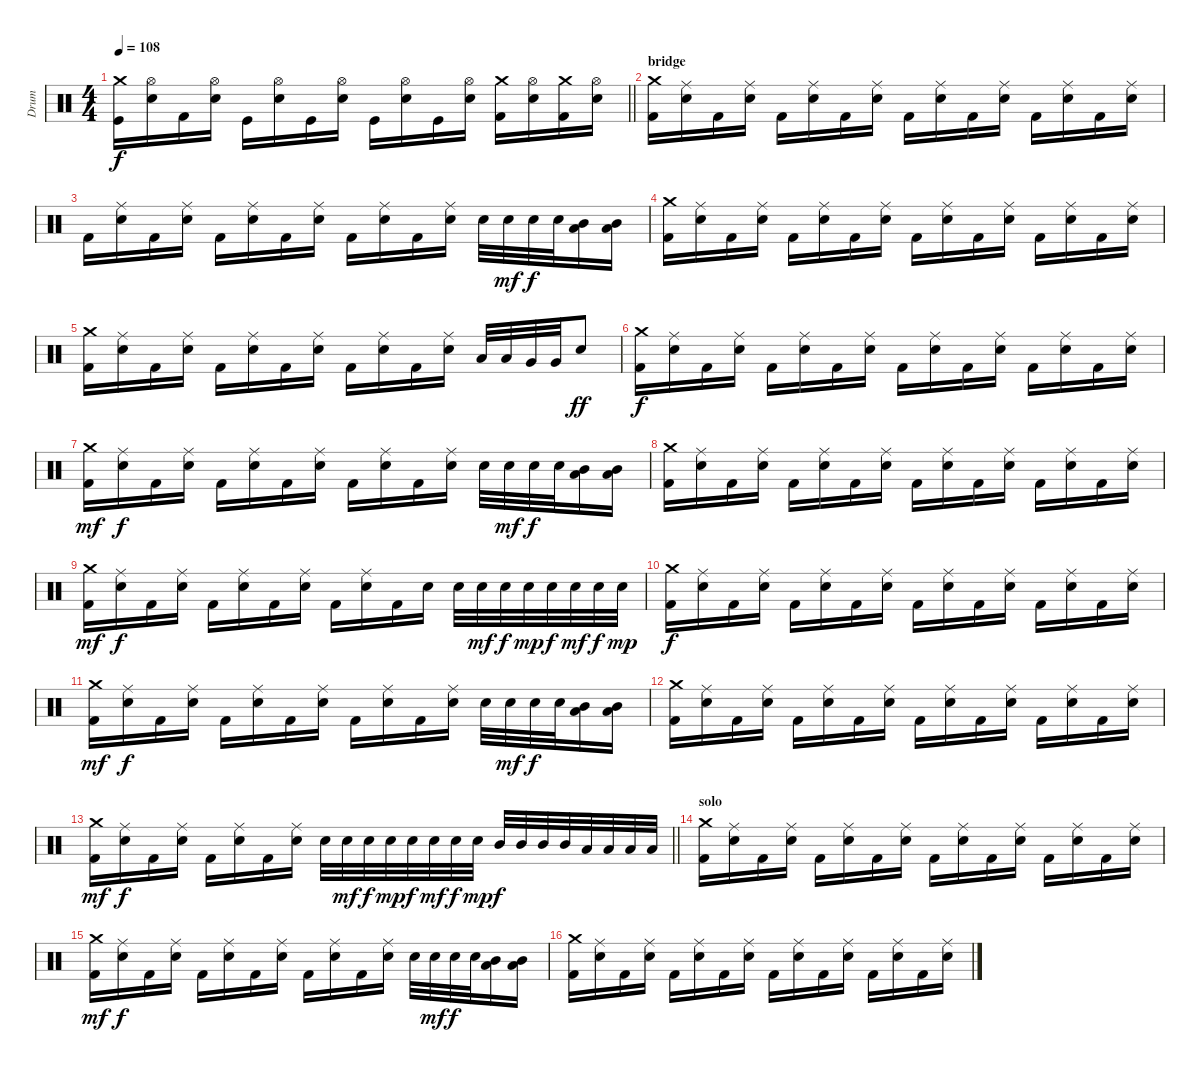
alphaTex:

\track ("Drum" "Drum") {instrument percussion}
\staff {score}
\articulation defaults
\ts (4 4)
\tempo 108
\clef neutral
\barLineRight lightlight
\ks c
("Crash medium (hit)" "Kick (hit)").16{dy f} ("Hi-Hat (open)" "Snare (hit) 2").16 "Kick (hit) 2".16 ("Hi-Hat (open)" "Snare (hit) 2").16 "Kick (hit)".16 ("Hi-Hat (open)" "Snare (hit) 2").16 "Kick (hit)".16 ("Hi-Hat (open)" "Snare (hit) 2").16 "Kick (hit)".16 ("Hi-Hat (open)" "Snare (hit) 2").16 "Kick (hit)".16 ("Hi-Hat (open)" "Snare (hit) 2").16 ("Crash medium (hit)" "Kick (hit) 2").16 ("Hi-Hat (open)" "Snare (hit) 2").16 ("Crash medium (hit)" "Kick (hit) 2").16 ("Hi-Hat (open)" "Snare (hit) 2").16 |
\section ("" "bridge")
("Crash medium (hit)" "Kick (hit) 2").16 ("Ride (middle)" "Snare (hit) 2").16 "Kick (hit) 2".16 ("Ride (middle)" "Snare (hit) 2").16 "Kick (hit) 2".16 ("Ride (middle)" "Snare (hit) 2").16 "Kick (hit) 2".16 ("Ride (middle)" "Snare (hit) 2").16 "Kick (hit) 2".16 ("Ride (middle)" "Snare (hit) 2").16 "Kick (hit) 2".16 ("Ride (middle)" "Snare (hit) 2").16 "Kick (hit) 2".16 ("Ride (middle)" "Snare (hit) 2").16 "Kick (hit) 2".16 ("Ride (middle)" "Snare (hit) 2").16 |
"Kick (hit) 2".16 ("Ride (middle)" "Snare (hit) 2").16 "Kick (hit) 2".16 ("Ride (middle)" "Snare (hit) 2").16 "Kick (hit) 2".16 ("Ride (middle)" "Snare (hit) 2").16 "Kick (hit) 2".16 ("Ride (middle)" "Snare (hit) 2").16 "Kick (hit) 2".16 ("Ride (middle)" "Snare (hit) 2").16 "Kick (hit) 2".16 ("Ride (middle)" "Snare (hit) 2").16 "Snare (hit) 2".32 "Snare (hit) 2".32{dy mf} "Snare (hit) 2".32{dy f} "Snare (hit) 2".32 ("Low Tom (hit)" "Mid Tom (hit)").16 ("Low Tom (hit)" "Mid Tom (hit)").16 |
("Crash medium (hit)" "Kick (hit) 2").16 ("Ride (middle)" "Snare (hit) 2").16 "Kick (hit) 2".16 ("Ride (middle)" "Snare (hit) 2").16 "Kick (hit) 2".16 ("Ride (middle)" "Snare (hit) 2").16 "Kick (hit) 2".16 ("Ride (middle)" "Snare (hit) 2").16 "Kick (hit) 2".16 ("Ride (middle)" "Snare (hit) 2").16 "Kick (hit) 2".16 ("Ride (middle)" "Snare (hit) 2").16 "Kick (hit) 2".16 ("Ride (middle)" "Snare (hit) 2").16 "Kick (hit) 2".16 ("Ride (middle)" "Snare (hit) 2").16 |
("Crash medium (hit)" "Kick (hit) 2").16 ("Ride (middle)" "Snare (hit) 2").16 "Kick (hit) 2".16 ("Ride (middle)" "Snare (hit) 2").16 "Kick (hit) 2".16 ("Ride (middle)" "Snare (hit) 2").16 "Kick (hit) 2".16 ("Ride (middle)" "Snare (hit) 2").16 "Kick (hit) 2".16 ("Ride (middle)" "Snare (hit) 2").16 "Kick (hit) 2".16 ("Ride (middle)" "Snare (hit) 2").16 "Low Tom (hit)".32 "Low Tom (hit)".32 "Very Low Tom (hit)".32 "Very Low Tom (hit)".32 "Snare (hit) 2".8{dy ff} |
("Crash medium (hit)" "Kick (hit) 2").16{dy f} ("Ride (middle)" "Snare (hit) 2").16 "Kick (hit) 2".16 ("Ride (middle)" "Snare (hit) 2").16 "Kick (hit) 2".16 ("Ride (middle)" "Snare (hit) 2").16 "Kick (hit) 2".16 ("Ride (middle)" "Snare (hit) 2").16 "Kick (hit) 2".16 ("Ride (middle)" "Snare (hit) 2").16 "Kick (hit) 2".16 ("Ride (middle)" "Snare (hit) 2").16 "Kick (hit) 2".16 ("Ride (middle)" "Snare (hit) 2").16 "Kick (hit) 2".16 ("Ride (middle)" "Snare (hit) 2").16 |
("Crash medium (hit)" "Kick (hit) 2").16{dy mf} ("Ride (middle)" "Snare (hit) 2").16{dy f} "Kick (hit) 2".16 ("Ride (middle)" "Snare (hit) 2").16 "Kick (hit) 2".16 ("Ride (middle)" "Snare (hit) 2").16 "Kick (hit) 2".16 ("Ride (middle)" "Snare (hit) 2").16 "Kick (hit) 2".16 ("Ride (middle)" "Snare (hit) 2").16 "Kick (hit) 2".16 ("Ride (middle)" "Snare (hit) 2").16 "Snare (hit) 2".32 "Snare (hit) 2".32{dy mf} "Snare (hit) 2".32{dy f} "Snare (hit) 2".32 ("Low Tom (hit)" "Mid Tom (hit)").16 ("Low Tom (hit)" "Mid Tom (hit)").16 |
("Crash medium (hit)" "Kick (hit) 2").16 ("Ride (middle)" "Snare (hit) 2").16 "Kick (hit) 2".16 ("Ride (middle)" "Snare (hit) 2").16 "Kick (hit) 2".16 ("Ride (middle)" "Snare (hit) 2").16 "Kick (hit) 2".16 ("Ride (middle)" "Snare (hit) 2").16 "Kick (hit) 2".16 ("Ride (middle)" "Snare (hit) 2").16 "Kick (hit) 2".16 ("Ride (middle)" "Snare (hit) 2").16 "Kick (hit) 2".16 ("Ride (middle)" "Snare (hit) 2").16 "Kick (hit) 2".16 ("Ride (middle)" "Snare (hit) 2").16 |
("Crash medium (hit)" "Kick (hit) 2").16{dy mf} ("Ride (middle)" "Snare (hit) 2").16{dy f} "Kick (hit) 2".16 ("Ride (middle)" "Snare (hit) 2").16 "Kick (hit) 2".16 ("Ride (middle)" "Snare (hit) 2").16 "Kick (hit) 2".16 ("Ride (middle)" "Snare (hit) 2").16 "Kick (hit) 2".16 ("Ride (middle)" "Snare (hit) 2").16 "Kick (hit) 2".16 "Snare (hit) 2".16 "Snare (hit) 2".32 "Snare (hit) 2".32{dy mf} "Snare (hit) 2".32{dy f} "Snare (hit) 2".32{dy mp} "Snare (hit) 2".32{dy f} "Snare (hit) 2".32{dy mf} "Snare (hit) 2".32{dy f} "Snare (hit) 2".32{dy mp} |
("Crash medium (hit)" "Kick (hit) 2").16{dy f} ("Ride (middle)" "Snare (hit) 2").16 "Kick (hit) 2".16 ("Ride (middle)" "Snare (hit) 2").16 "Kick (hit) 2".16 ("Ride (middle)" "Snare (hit) 2").16 "Kick (hit) 2".16 ("Ride (middle)" "Snare (hit) 2").16 "Kick (hit) 2".16 ("Ride (middle)" "Snare (hit) 2").16 "Kick (hit) 2".16 ("Ride (middle)" "Snare (hit) 2").16 "Kick (hit) 2".16 ("Ride (middle)" "Snare (hit) 2").16 "Kick (hit) 2".16 ("Ride (middle)" "Snare (hit) 2").16 |
("Crash medium (hit)" "Kick (hit) 2").16{dy mf} ("Ride (middle)" "Snare (hit) 2").16{dy f} "Kick (hit) 2".16 ("Ride (middle)" "Snare (hit) 2").16 "Kick (hit) 2".16 ("Ride (middle)" "Snare (hit) 2").16 "Kick (hit) 2".16 ("Ride (middle)" "Snare (hit) 2").16 "Kick (hit) 2".16 ("Ride (middle)" "Snare (hit) 2").16 "Kick (hit) 2".16 ("Ride (middle)" "Snare (hit) 2").16 "Snare (hit) 2".32 "Snare (hit) 2".32{dy mf} "Snare (hit) 2".32{dy f} "Snare (hit) 2".32 ("Low Tom (hit)" "Mid Tom (hit)").16 ("Low Tom (hit)" "Mid Tom (hit)").16 |
("Crash medium (hit)" "Kick (hit) 2").16 ("Ride (middle)" "Snare (hit) 2").16 "Kick (hit) 2".16 ("Ride (middle)" "Snare (hit) 2").16 "Kick (hit) 2".16 ("Ride (middle)" "Snare (hit) 2").16 "Kick (hit) 2".16 ("Ride (middle)" "Snare (hit) 2").16 "Kick (hit) 2".16 ("Ride (middle)" "Snare (hit) 2").16 "Kick (hit) 2".16 ("Ride (middle)" "Snare (hit) 2").16 "Kick (hit) 2".16 ("Ride (middle)" "Snare (hit) 2").16 "Kick (hit) 2".16 ("Ride (middle)" "Snare (hit) 2").16 |
\barLineRight lightlight
("Crash medium (hit)" "Kick (hit) 2").16{dy mf} ("Ride (middle)" "Snare (hit) 2").16{dy f} "Kick (hit) 2".16 ("Ride (middle)" "Snare (hit) 2").16 "Kick (hit) 2".16 ("Ride (middle)" "Snare (hit) 2").16 "Kick (hit) 2".16 ("Ride (middle)" "Snare (hit) 2").16 "Snare (hit) 2".32 "Snare (hit) 2".32{dy mf} "Snare (hit) 2".32{dy f} "Snare (hit) 2".32{dy mp} "Snare (hit) 2".32{dy f} "Snare (hit) 2".32{dy mf} "Snare (hit) 2".32{dy f} "Snare (hit) 2".32{dy mp} "Mid Tom (hit)".32{dy f} "Mid Tom (hit)".32 "Mid Tom (hit)".32 "Mid Tom (hit)".32 "Low Tom (hit)".32 "Low Tom (hit)".32 "Low Tom (hit)".32 "Low Tom (hit)".32 |
\section ("" "solo")
("Crash medium (hit)" "Kick (hit) 2").16 ("Ride (middle)" "Snare (hit) 2").16 "Kick (hit) 2".16 ("Ride (middle)" "Snare (hit) 2").16 "Kick (hit) 2".16 ("Ride (middle)" "Snare (hit) 2").16 "Kick (hit) 2".16 ("Ride (middle)" "Snare (hit) 2").16 "Kick (hit) 2".16 ("Ride (middle)" "Snare (hit) 2").16 "Kick (hit) 2".16 ("Ride (middle)" "Snare (hit) 2").16 "Kick (hit) 2".16 ("Ride (middle)" "Snare (hit) 2").16 "Kick (hit) 2".16 ("Ride (middle)" "Snare (hit) 2").16 |
("Crash medium (hit)" "Kick (hit) 2").16{dy mf} ("Ride (middle)" "Snare (hit) 2").16{dy f} "Kick (hit) 2".16 ("Ride (middle)" "Snare (hit) 2").16 "Kick (hit) 2".16 ("Ride (middle)" "Snare (hit) 2").16 "Kick (hit) 2".16 ("Ride (middle)" "Snare (hit) 2").16 "Kick (hit) 2".16 ("Ride (middle)" "Snare (hit) 2").16 "Kick (hit) 2".16 ("Ride (middle)" "Snare (hit) 2").16 "Snare (hit) 2".32 "Snare (hit) 2".32{dy mf} "Snare (hit) 2".32{dy f} "Snare (hit) 2".32 ("Low Tom (hit)" "Mid Tom (hit)").16 ("Low Tom (hit)" "Mid Tom (hit)").16 |
("Crash medium (hit)" "Kick (hit) 2").16 ("Ride (middle)" "Snare (hit) 2").16 "Kick (hit) 2".16 ("Ride (middle)" "Snare (hit) 2").16 "Kick (hit) 2".16 ("Ride (middle)" "Snare (hit) 2").16 "Kick (hit) 2".16 ("Ride (middle)" "Snare (hit) 2").16 "Kick (hit) 2".16 ("Ride (middle)" "Snare (hit) 2").16 "Kick (hit) 2".16 ("Ride (middle)" "Snare (hit) 2").16 "Kick (hit) 2".16 ("Ride (middle)" "Snare (hit) 2").16 "Kick (hit) 2".16 ("Ride (middle)" "Snare (hit) 2").16
